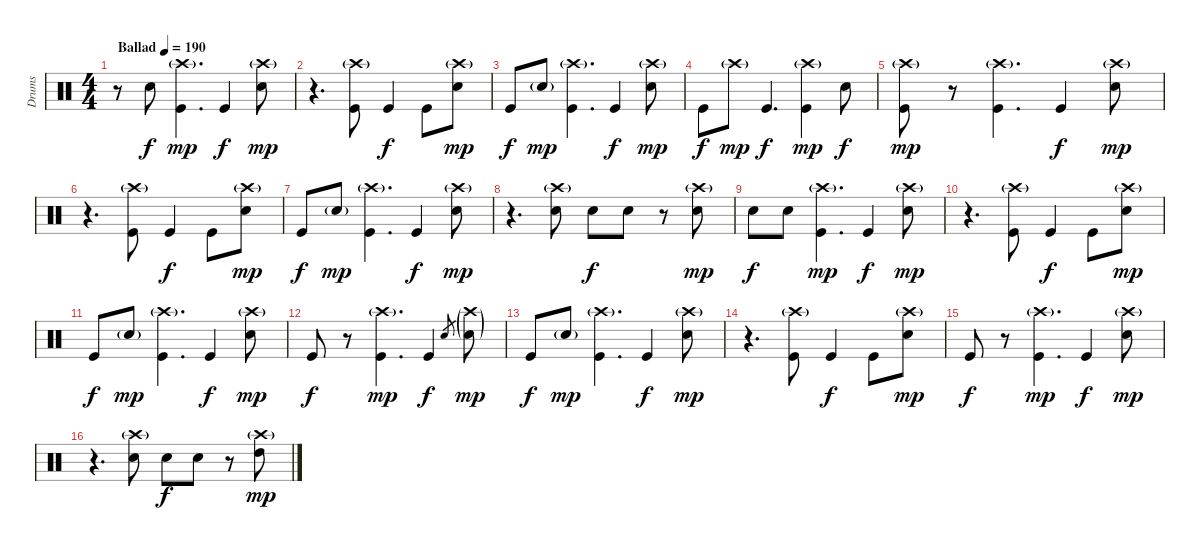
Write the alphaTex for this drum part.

\track ("Drums" "Drums") {instrument percussion}
\staff {score}
\articulation defaults
\ts (4 4)
\tempo (190 "Ballad")
\clef neutral
\ks c
r.8{dy f} "Electric Snare (hit)".8 ("Kick (hit)" "Crash high (hit)"{g}).4{d dy mp} "Kick (hit)".4{dy f} ("Electric Snare (hit)" "Crash high (hit)"{g}).8{dy mp} |
r.4{d} ("Kick (hit)" "Crash high (hit)"{g}).8 "Kick (hit)".4{dy f} "Kick (hit)".8 ("Electric Snare (hit)" "Crash high (hit)"{g}).8{dy mp} |
"Kick (hit)".8{dy f} "Electric Snare (hit)"{g}.8{dy mp} ("Kick (hit)" "Crash high (hit)"{g}).4{d} "Kick (hit)".4{dy f} ("Electric Snare (hit)" "Crash high (hit)"{g}).8{dy mp} |
"Kick (hit)".8{dy f} "Crash high (hit)"{g}.8{dy mp} "Kick (hit)".4{d dy f} ("Kick (hit)" "Crash high (hit)"{g}).4{dy mp} "Electric Snare (hit)".8{dy f} |
("Kick (hit)" "Crash high (hit)"{g}).8{dy mp} r.8 ("Kick (hit)" "Crash high (hit)"{g}).4{d} "Kick (hit)".4{dy f} ("Electric Snare (hit)" "Crash high (hit)"{g}).8{dy mp} |
r.4{d} ("Kick (hit)" "Crash high (hit)"{g}).8 "Kick (hit)".4{dy f} "Kick (hit)".8 ("Electric Snare (hit)" "Crash high (hit)"{g}).8{dy mp} |
"Kick (hit)".8{dy f} "Electric Snare (hit)"{g}.8{dy mp} ("Kick (hit)" "Crash high (hit)"{g}).4{d} "Kick (hit)".4{dy f} ("Electric Snare (hit)" "Crash high (hit)"{g}).8{dy mp} |
r.4{d} ("Electric Snare (hit)" "Crash high (hit)"{g}).8 "Electric Snare (hit)".8{dy f} "Electric Snare (hit)".8 r.8 ("Electric Snare (hit)" "Crash high (hit)"{g}).8{dy mp} |
"Electric Snare (hit)".8{dy f} "Electric Snare (hit)".8 ("Kick (hit)" "Crash high (hit)"{g}).4{d dy mp} "Kick (hit)".4{dy f} ("Electric Snare (hit)" "Crash high (hit)"{g}).8{dy mp} |
r.4{d} ("Kick (hit)" "Crash high (hit)"{g}).8 "Kick (hit)".4{dy f} "Kick (hit)".8 ("Electric Snare (hit)" "Crash high (hit)"{g}).8{dy mp} |
"Kick (hit)".8{dy f} "Electric Snare (hit)"{g}.8{dy mp} ("Kick (hit)" "Crash high (hit)"{g}).4{d} "Kick (hit)".4{dy f} ("Electric Snare (hit)" "Crash high (hit)"{g}).8{dy mp} |
"Kick (hit)".8{dy f} r.8 ("Kick (hit)" "Crash high (hit)"{g}).4{d dy mp} "Kick (hit)".4{dy f} "Electric Snare (hit)".8{gr} ("Electric Snare (hit)"{g} "Crash high (hit)"{g}).8{dy mp} |
"Kick (hit)".8{dy f} "Electric Snare (hit)"{g}.8{dy mp} ("Kick (hit)" "Crash high (hit)"{g}).4{d} "Kick (hit)".4{dy f} ("Electric Snare (hit)" "Crash high (hit)"{g}).8{dy mp} |
r.4{d} ("Kick (hit)" "Crash high (hit)"{g}).8 "Kick (hit)".4{dy f} "Kick (hit)".8 ("Electric Snare (hit)" "Crash high (hit)"{g}).8{dy mp} |
"Kick (hit)".8{dy f} r.8 ("Kick (hit)" "Crash high (hit)"{g}).4{d dy mp} "Kick (hit)".4{dy f} ("Electric Snare (hit)" "Crash high (hit)"{g}).8{dy mp} |
r.4{d} ("Electric Snare (hit)" "Crash high (hit)"{g}).8 "Electric Snare (hit)".8{dy f} "Electric Snare (hit)".8 r.8 ("High Tom (hit)" "Crash high (hit)"{g}).8{dy mp}
